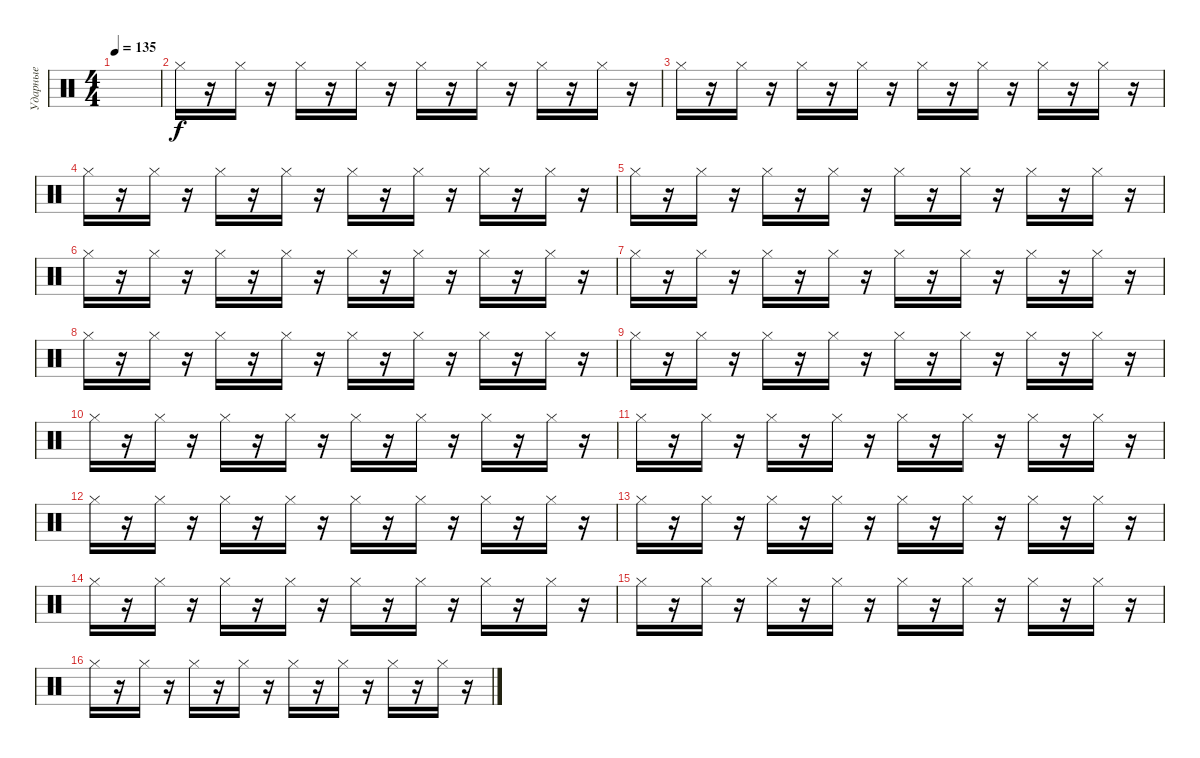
\track ("Ударные" "Ударные") {instrument percussion}
\staff {score}
\articulation defaults
\ts (4 4)
\tempo 135
\clef neutral
\ks c
|
"Hi-Hat (closed)".16{volume 8} r.16 "Hi-Hat (closed)".16 r.16 "Hi-Hat (closed)".16 r.16 "Hi-Hat (closed)".16 r.16 "Hi-Hat (closed)".16 r.16 "Hi-Hat (closed)".16 r.16 "Hi-Hat (closed)".16 r.16 "Hi-Hat (closed)".16 r.16 |
"Hi-Hat (closed)".16 r.16 "Hi-Hat (closed)".16 r.16 "Hi-Hat (closed)".16 r.16 "Hi-Hat (closed)".16 r.16 "Hi-Hat (closed)".16 r.16 "Hi-Hat (closed)".16 r.16 "Hi-Hat (closed)".16 r.16 "Hi-Hat (closed)".16 r.16 |
"Hi-Hat (closed)".16 r.16 "Hi-Hat (closed)".16 r.16 "Hi-Hat (closed)".16 r.16 "Hi-Hat (closed)".16 r.16 "Hi-Hat (closed)".16 r.16 "Hi-Hat (closed)".16 r.16 "Hi-Hat (closed)".16 r.16 "Hi-Hat (closed)".16 r.16 |
"Hi-Hat (closed)".16 r.16 "Hi-Hat (closed)".16 r.16 "Hi-Hat (closed)".16 r.16 "Hi-Hat (closed)".16 r.16 "Hi-Hat (closed)".16 r.16 "Hi-Hat (closed)".16 r.16 "Hi-Hat (closed)".16 r.16 "Hi-Hat (closed)".16 r.16 |
"Hi-Hat (closed)".16 r.16 "Hi-Hat (closed)".16 r.16 "Hi-Hat (closed)".16 r.16 "Hi-Hat (closed)".16 r.16 "Hi-Hat (closed)".16 r.16 "Hi-Hat (closed)".16 r.16 "Hi-Hat (closed)".16 r.16 "Hi-Hat (closed)".16 r.16 |
"Hi-Hat (closed)".16 r.16 "Hi-Hat (closed)".16 r.16 "Hi-Hat (closed)".16 r.16 "Hi-Hat (closed)".16 r.16 "Hi-Hat (closed)".16 r.16 "Hi-Hat (closed)".16 r.16 "Hi-Hat (closed)".16 r.16 "Hi-Hat (closed)".16 r.16 |
"Hi-Hat (closed)".16 r.16 "Hi-Hat (closed)".16 r.16 "Hi-Hat (closed)".16 r.16 "Hi-Hat (closed)".16 r.16 "Hi-Hat (closed)".16 r.16 "Hi-Hat (closed)".16 r.16 "Hi-Hat (closed)".16 r.16 "Hi-Hat (closed)".16 r.16 |
"Hi-Hat (closed)".16 r.16 "Hi-Hat (closed)".16 r.16 "Hi-Hat (closed)".16 r.16 "Hi-Hat (closed)".16 r.16 "Hi-Hat (closed)".16 r.16 "Hi-Hat (closed)".16 r.16 "Hi-Hat (closed)".16 r.16 "Hi-Hat (closed)".16 r.16 |
"Hi-Hat (closed)".16 r.16 "Hi-Hat (closed)".16 r.16 "Hi-Hat (closed)".16 r.16 "Hi-Hat (closed)".16 r.16 "Hi-Hat (closed)".16 r.16 "Hi-Hat (closed)".16 r.16 "Hi-Hat (closed)".16 r.16 "Hi-Hat (closed)".16 r.16 |
"Hi-Hat (closed)".16 r.16 "Hi-Hat (closed)".16 r.16 "Hi-Hat (closed)".16 r.16 "Hi-Hat (closed)".16 r.16 "Hi-Hat (closed)".16 r.16 "Hi-Hat (closed)".16 r.16 "Hi-Hat (closed)".16 r.16 "Hi-Hat (closed)".16 r.16 |
"Hi-Hat (closed)".16 r.16 "Hi-Hat (closed)".16 r.16 "Hi-Hat (closed)".16 r.16 "Hi-Hat (closed)".16 r.16 "Hi-Hat (closed)".16 r.16 "Hi-Hat (closed)".16 r.16 "Hi-Hat (closed)".16 r.16 "Hi-Hat (closed)".16 r.16 |
"Hi-Hat (closed)".16 r.16 "Hi-Hat (closed)".16 r.16 "Hi-Hat (closed)".16 r.16 "Hi-Hat (closed)".16 r.16 "Hi-Hat (closed)".16 r.16 "Hi-Hat (closed)".16 r.16 "Hi-Hat (closed)".16 r.16 "Hi-Hat (closed)".16 r.16 |
"Hi-Hat (closed)".16 r.16 "Hi-Hat (closed)".16 r.16 "Hi-Hat (closed)".16 r.16 "Hi-Hat (closed)".16 r.16 "Hi-Hat (closed)".16 r.16 "Hi-Hat (closed)".16 r.16 "Hi-Hat (closed)".16 r.16 "Hi-Hat (closed)".16 r.16 |
"Hi-Hat (closed)".16 r.16 "Hi-Hat (closed)".16 r.16 "Hi-Hat (closed)".16 r.16 "Hi-Hat (closed)".16 r.16 "Hi-Hat (closed)".16 r.16 "Hi-Hat (closed)".16 r.16 "Hi-Hat (closed)".16 r.16 "Hi-Hat (closed)".16 r.16 |
"Hi-Hat (closed)".16 r.16 "Hi-Hat (closed)".16 r.16 "Hi-Hat (closed)".16 r.16 "Hi-Hat (closed)".16 r.16 "Hi-Hat (closed)".16 r.16 "Hi-Hat (closed)".16 r.16 "Hi-Hat (closed)".16 r.16 "Hi-Hat (closed)".16 r.16
